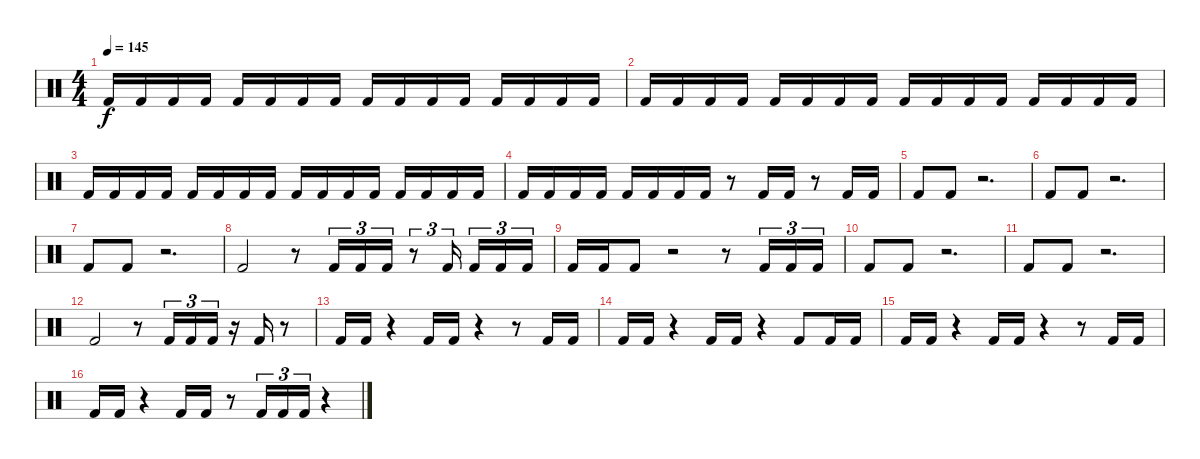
\track "" {instrument percussion}
\staff {score}
\articulation defaults
\ts (4 4)
\tempo 145
\clef neutral
\ks c "Kick (hit) 2".16{dy f} "Kick (hit) 2".16 "Kick (hit) 2".16 "Kick (hit) 2".16 "Kick (hit) 2".16 "Kick (hit) 2".16 "Kick (hit) 2".16 "Kick (hit) 2".16 "Kick (hit) 2".16 "Kick (hit) 2".16 "Kick (hit) 2".16 "Kick (hit) 2".16 "Kick (hit) 2".16 "Kick (hit) 2".16 "Kick (hit) 2".16 "Kick (hit) 2".16
|
"Kick (hit) 2".16 "Kick (hit) 2".16 "Kick (hit) 2".16 "Kick (hit) 2".16 "Kick (hit) 2".16 "Kick (hit) 2".16 "Kick (hit) 2".16 "Kick (hit) 2".16 "Kick (hit) 2".16 "Kick (hit) 2".16 "Kick (hit) 2".16 "Kick (hit) 2".16 "Kick (hit) 2".16 "Kick (hit) 2".16 "Kick (hit) 2".16 "Kick (hit) 2".16 |
"Kick (hit) 2".16 "Kick (hit) 2".16 "Kick (hit) 2".16 "Kick (hit) 2".16 "Kick (hit) 2".16 "Kick (hit) 2".16 "Kick (hit) 2".16 "Kick (hit) 2".16 "Kick (hit) 2".16 "Kick (hit) 2".16 "Kick (hit) 2".16 "Kick (hit) 2".16 "Kick (hit) 2".16 "Kick (hit) 2".16 "Kick (hit) 2".16 "Kick (hit) 2".16 |
"Kick (hit) 2".16 "Kick (hit) 2".16 "Kick (hit) 2".16 "Kick (hit) 2".16 "Kick (hit) 2".16 "Kick (hit) 2".16 "Kick (hit) 2".16 "Kick (hit) 2".16 r.8 "Kick (hit) 2".16 "Kick (hit) 2".16 r.8 "Kick (hit) 2".16 "Kick (hit) 2".16 |
"Kick (hit) 2".8 "Kick (hit) 2".8 r.2{d} |
"Kick (hit) 2".8 "Kick (hit) 2".8 r.2{d} |
"Kick (hit) 2".8 "Kick (hit) 2".8 r.2{d} |
"Kick (hit) 2".2 r.8 "Kick (hit) 2".16{tu (3 2)} "Kick (hit) 2".16{tu (3 2)} "Kick (hit) 2".16{tu (3 2)} r.8{tu (3 2)} "Kick (hit) 2".16{tu (3 2)} "Kick (hit) 2".16{tu (3 2)} "Kick (hit) 2".16{tu (3 2)} "Kick (hit) 2".16{tu (3 2)} |
"Kick (hit) 2".16 "Kick (hit) 2".16 "Kick (hit) 2".8 r.2 r.8 "Kick (hit) 2".16{tu (3 2)} "Kick (hit) 2".16{tu (3 2)} "Kick (hit) 2".16{tu (3 2)} |
"Kick (hit) 2".8 "Kick (hit) 2".8 r.2{d} |
"Kick (hit) 2".8 "Kick (hit) 2".8 r.2{d} |
"Kick (hit) 2".2 r.8 "Kick (hit) 2".16{tu (3 2)} "Kick (hit) 2".16{tu (3 2)} "Kick (hit) 2".16{tu (3 2)} r.16 "Kick (hit) 2".16 r.8 |
"Kick (hit) 2".16 "Kick (hit) 2".16 r.4 "Kick (hit) 2".16 "Kick (hit) 2".16 r.4 r.8 "Kick (hit) 2".16 "Kick (hit) 2".16 |
"Kick (hit) 2".16 "Kick (hit) 2".16 r.4 "Kick (hit) 2".16 "Kick (hit) 2".16 r.4 "Kick (hit) 2".8 "Kick (hit) 2".16 "Kick (hit) 2".16 |
"Kick (hit) 2".16 "Kick (hit) 2".16 r.4 "Kick (hit) 2".16 "Kick (hit) 2".16 r.4 r.8 "Kick (hit) 2".16 "Kick (hit) 2".16 |
"Kick (hit) 2".16 "Kick (hit) 2".16 r.4 "Kick (hit) 2".16 "Kick (hit) 2".16 r.8 "Kick (hit) 2".16{tu (3 2)} "Kick (hit) 2".16{tu (3 2)} "Kick (hit) 2".16{tu (3 2)} r.4
